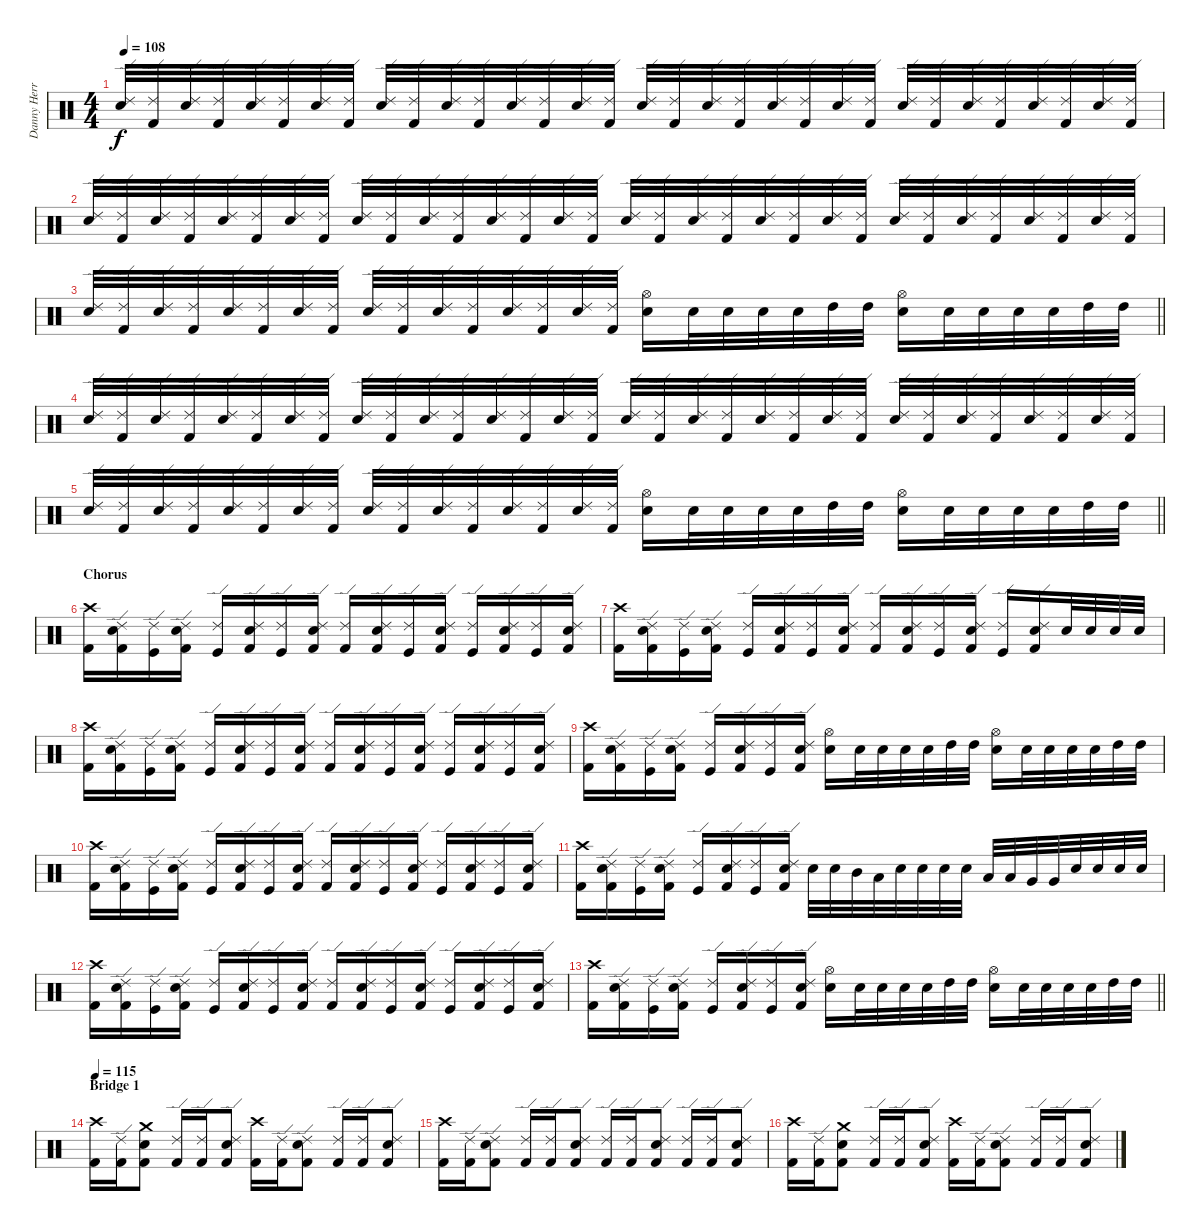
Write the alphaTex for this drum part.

\track ("Danny Herrera " "Danny Herr") {instrument percussion}
\staff {score}
\articulation defaults
\ts (4 4)
\tempo 108
\clef neutral
\ks c
("Snare (hit) 2" "Ride (edge) 2").32{dy f} ("Kick (hit) 2" "Ride (edge) 2").32 ("Snare (hit) 2" "Ride (edge) 2").32 ("Kick (hit) 2" "Ride (edge) 2").32 ("Snare (hit) 2" "Ride (edge) 2").32 ("Kick (hit) 2" "Ride (edge) 2").32 ("Snare (hit) 2" "Ride (edge) 2").32 ("Kick (hit) 2" "Ride (edge) 2").32 ("Snare (hit) 2" "Ride (edge) 2").32 ("Kick (hit) 2" "Ride (edge) 2").32 ("Snare (hit) 2" "Ride (edge) 2").32 ("Kick (hit) 2" "Ride (edge) 2").32 ("Snare (hit) 2" "Ride (edge) 2").32 ("Kick (hit) 2" "Ride (edge) 2").32 ("Snare (hit) 2" "Ride (edge) 2").32 ("Kick (hit) 2" "Ride (edge) 2").32 ("Snare (hit) 2" "Ride (edge) 2").32 ("Kick (hit) 2" "Ride (edge) 2").32 ("Snare (hit) 2" "Ride (edge) 2").32 ("Kick (hit) 2" "Ride (edge) 2").32 ("Snare (hit) 2" "Ride (edge) 2").32 ("Kick (hit) 2" "Ride (edge) 2").32 ("Snare (hit) 2" "Ride (edge) 2").32 ("Kick (hit) 2" "Ride (edge) 2").32 ("Snare (hit) 2" "Ride (edge) 2").32 ("Kick (hit) 2" "Ride (edge) 2").32 ("Snare (hit) 2" "Ride (edge) 2").32 ("Kick (hit) 2" "Ride (edge) 2").32 ("Snare (hit) 2" "Ride (edge) 2").32 ("Kick (hit) 2" "Ride (edge) 2").32 ("Snare (hit) 2" "Ride (edge) 2").32 ("Kick (hit) 2" "Ride (edge) 2").32 |
("Snare (hit) 2" "Ride (edge) 2").32 ("Kick (hit) 2" "Ride (edge) 2").32 ("Snare (hit) 2" "Ride (edge) 2").32 ("Kick (hit) 2" "Ride (edge) 2").32 ("Snare (hit) 2" "Ride (edge) 2").32 ("Kick (hit) 2" "Ride (edge) 2").32 ("Snare (hit) 2" "Ride (edge) 2").32 ("Kick (hit) 2" "Ride (edge) 2").32 ("Snare (hit) 2" "Ride (edge) 2").32 ("Kick (hit) 2" "Ride (edge) 2").32 ("Snare (hit) 2" "Ride (edge) 2").32 ("Kick (hit) 2" "Ride (edge) 2").32 ("Snare (hit) 2" "Ride (edge) 2").32 ("Kick (hit) 2" "Ride (edge) 2").32 ("Snare (hit) 2" "Ride (edge) 2").32 ("Kick (hit) 2" "Ride (edge) 2").32 ("Snare (hit) 2" "Ride (edge) 2").32 ("Kick (hit) 2" "Ride (edge) 2").32 ("Snare (hit) 2" "Ride (edge) 2").32 ("Kick (hit) 2" "Ride (edge) 2").32 ("Snare (hit) 2" "Ride (edge) 2").32 ("Kick (hit) 2" "Ride (edge) 2").32 ("Snare (hit) 2" "Ride (edge) 2").32 ("Kick (hit) 2" "Ride (edge) 2").32 ("Snare (hit) 2" "Ride (edge) 2").32 ("Kick (hit) 2" "Ride (edge) 2").32 ("Snare (hit) 2" "Ride (edge) 2").32 ("Kick (hit) 2" "Ride (edge) 2").32 ("Snare (hit) 2" "Ride (edge) 2").32 ("Kick (hit) 2" "Ride (edge) 2").32 ("Snare (hit) 2" "Ride (edge) 2").32 ("Kick (hit) 2" "Ride (edge) 2").32 |
\barLineRight lightlight
("Snare (hit) 2" "Ride (edge) 2").32 ("Kick (hit) 2" "Ride (edge) 2").32 ("Snare (hit) 2" "Ride (edge) 2").32 ("Kick (hit) 2" "Ride (edge) 2").32 ("Snare (hit) 2" "Ride (edge) 2").32 ("Kick (hit) 2" "Ride (edge) 2").32 ("Snare (hit) 2" "Ride (edge) 2").32 ("Kick (hit) 2" "Ride (edge) 2").32 ("Snare (hit) 2" "Ride (edge) 2").32 ("Kick (hit) 2" "Ride (edge) 2").32 ("Snare (hit) 2" "Ride (edge) 2").32 ("Kick (hit) 2" "Ride (edge) 2").32 ("Snare (hit) 2" "Ride (edge) 2").32 ("Kick (hit) 2" "Ride (edge) 2").32 ("Snare (hit) 2" "Ride (edge) 2").32 ("Kick (hit) 2" "Ride (edge) 2").32 ("Snare (hit) 2" "Hi-Hat (open)").16 "Snare (hit) 2".32 "Snare (hit) 2".32 "Snare (hit) 2".32 "Snare (hit) 2".32 "High Tom (hit)".32 "High Tom (hit)".32 ("Snare (hit) 2" "Hi-Hat (open)").16 "Snare (hit) 2".32 "Snare (hit) 2".32 "Snare (hit) 2".32 "Snare (hit) 2".32 "High Tom (hit)".32 "High Tom (hit)".32 |
("Snare (hit) 2" "Ride (edge) 2").32 ("Kick (hit) 2" "Ride (edge) 2").32 ("Snare (hit) 2" "Ride (edge) 2").32 ("Kick (hit) 2" "Ride (edge) 2").32 ("Snare (hit) 2" "Ride (edge) 2").32 ("Kick (hit) 2" "Ride (edge) 2").32 ("Snare (hit) 2" "Ride (edge) 2").32 ("Kick (hit) 2" "Ride (edge) 2").32 ("Snare (hit) 2" "Ride (edge) 2").32 ("Kick (hit) 2" "Ride (edge) 2").32 ("Snare (hit) 2" "Ride (edge) 2").32 ("Kick (hit) 2" "Ride (edge) 2").32 ("Snare (hit) 2" "Ride (edge) 2").32 ("Kick (hit) 2" "Ride (edge) 2").32 ("Snare (hit) 2" "Ride (edge) 2").32 ("Kick (hit) 2" "Ride (edge) 2").32 ("Snare (hit) 2" "Ride (edge) 2").32 ("Kick (hit) 2" "Ride (edge) 2").32 ("Snare (hit) 2" "Ride (edge) 2").32 ("Kick (hit) 2" "Ride (edge) 2").32 ("Snare (hit) 2" "Ride (edge) 2").32 ("Kick (hit) 2" "Ride (edge) 2").32 ("Snare (hit) 2" "Ride (edge) 2").32 ("Kick (hit) 2" "Ride (edge) 2").32 ("Snare (hit) 2" "Ride (edge) 2").32 ("Kick (hit) 2" "Ride (edge) 2").32 ("Snare (hit) 2" "Ride (edge) 2").32 ("Kick (hit) 2" "Ride (edge) 2").32 ("Snare (hit) 2" "Ride (edge) 2").32 ("Kick (hit) 2" "Ride (edge) 2").32 ("Snare (hit) 2" "Ride (edge) 2").32 ("Kick (hit) 2" "Ride (edge) 2").32 |
\barLineRight lightlight
("Snare (hit) 2" "Ride (edge) 2").32 ("Kick (hit) 2" "Ride (edge) 2").32 ("Snare (hit) 2" "Ride (edge) 2").32 ("Kick (hit) 2" "Ride (edge) 2").32 ("Snare (hit) 2" "Ride (edge) 2").32 ("Kick (hit) 2" "Ride (edge) 2").32 ("Snare (hit) 2" "Ride (edge) 2").32 ("Kick (hit) 2" "Ride (edge) 2").32 ("Snare (hit) 2" "Ride (edge) 2").32 ("Kick (hit) 2" "Ride (edge) 2").32 ("Snare (hit) 2" "Ride (edge) 2").32 ("Kick (hit) 2" "Ride (edge) 2").32 ("Snare (hit) 2" "Ride (edge) 2").32 ("Kick (hit) 2" "Ride (edge) 2").32 ("Snare (hit) 2" "Ride (edge) 2").32 ("Kick (hit) 2" "Ride (edge) 2").32 ("Snare (hit) 2" "Hi-Hat (open)").16 "Snare (hit) 2".32 "Snare (hit) 2".32 "Snare (hit) 2".32 "Snare (hit) 2".32 "High Tom (hit)".32 "High Tom (hit)".32 ("Snare (hit) 2" "Hi-Hat (open)").16 "Snare (hit) 2".32 "Snare (hit) 2".32 "Snare (hit) 2".32 "Snare (hit) 2".32 "High Tom (hit)".32 "High Tom (hit)".32 |
\section ("" "Chorus")
("Kick (hit) 2" "Crash high (hit)").16 ("Kick (hit) 2" "Snare (hit) 2" "Ride (edge) 2").16 ("Kick (hit)" "Ride (edge) 2").16 ("Kick (hit) 2" "Snare (hit) 2" "Ride (edge) 2").16 ("Kick (hit)" "Ride (edge) 2").16 ("Kick (hit) 2" "Snare (hit) 2" "Ride (edge) 2").16 ("Kick (hit)" "Ride (edge) 2").16 ("Kick (hit) 2" "Snare (hit) 2" "Ride (edge) 2").16 ("Kick (hit) 2" "Ride (edge) 2").16 ("Kick (hit) 2" "Snare (hit) 2" "Ride (edge) 2").16 ("Kick (hit)" "Ride (edge) 2").16 ("Kick (hit) 2" "Snare (hit) 2" "Ride (edge) 2").16 ("Kick (hit)" "Ride (edge) 2").16 ("Kick (hit) 2" "Snare (hit) 2" "Ride (edge) 2").16 ("Kick (hit)" "Ride (edge) 2").16 ("Kick (hit) 2" "Snare (hit) 2" "Ride (edge) 2").16 |
("Kick (hit) 2" "Crash high (hit)").16 ("Kick (hit) 2" "Snare (hit) 2" "Ride (edge) 2").16 ("Kick (hit)" "Ride (edge) 2").16 ("Kick (hit) 2" "Snare (hit) 2" "Ride (edge) 2").16 ("Kick (hit)" "Ride (edge) 2").16 ("Kick (hit) 2" "Snare (hit) 2" "Ride (edge) 2").16 ("Kick (hit)" "Ride (edge) 2").16 ("Kick (hit) 2" "Snare (hit) 2" "Ride (edge) 2").16 ("Kick (hit) 2" "Ride (edge) 2").16 ("Kick (hit) 2" "Snare (hit) 2" "Ride (edge) 2").16 ("Kick (hit)" "Ride (edge) 2").16 ("Kick (hit) 2" "Snare (hit) 2" "Ride (edge) 2").16 ("Kick (hit)" "Ride (edge) 2").16 ("Kick (hit) 2" "Snare (hit) 2" "Ride (edge) 2").16 "Snare (hit) 2".32 "Snare (hit) 2".32 "Snare (hit) 2".32 "Snare (hit) 2".32 |
("Kick (hit) 2" "Crash high (hit)").16 ("Kick (hit) 2" "Snare (hit) 2" "Ride (edge) 2").16 ("Kick (hit)" "Ride (edge) 2").16 ("Kick (hit) 2" "Snare (hit) 2" "Ride (edge) 2").16 ("Kick (hit)" "Ride (edge) 2").16 ("Kick (hit) 2" "Snare (hit) 2" "Ride (edge) 2").16 ("Kick (hit)" "Ride (edge) 2").16 ("Kick (hit) 2" "Snare (hit) 2" "Ride (edge) 2").16 ("Kick (hit) 2" "Ride (edge) 2").16 ("Kick (hit) 2" "Snare (hit) 2" "Ride (edge) 2").16 ("Kick (hit)" "Ride (edge) 2").16 ("Kick (hit) 2" "Snare (hit) 2" "Ride (edge) 2").16 ("Kick (hit)" "Ride (edge) 2").16 ("Kick (hit) 2" "Snare (hit) 2" "Ride (edge) 2").16 ("Kick (hit)" "Ride (edge) 2").16 ("Kick (hit) 2" "Snare (hit) 2" "Ride (edge) 2").16 |
("Kick (hit) 2" "Crash high (hit)").16 ("Kick (hit) 2" "Snare (hit) 2" "Ride (edge) 2").16 ("Kick (hit)" "Ride (edge) 2").16 ("Kick (hit) 2" "Snare (hit) 2" "Ride (edge) 2").16 ("Kick (hit)" "Ride (edge) 2").16 ("Kick (hit) 2" "Snare (hit) 2" "Ride (edge) 2").16 ("Kick (hit)" "Ride (edge) 2").16 ("Kick (hit) 2" "Snare (hit) 2" "Ride (edge) 2").16 ("Snare (hit) 2" "Hi-Hat (open)").16 "Snare (hit) 2".32 "Snare (hit) 2".32 "Snare (hit) 2".32 "Snare (hit) 2".32 "High Tom (hit)".32 "High Tom (hit)".32 ("Snare (hit) 2" "Hi-Hat (open)").16 "Snare (hit) 2".32 "Snare (hit) 2".32 "Snare (hit) 2".32 "Snare (hit) 2".32 "High Tom (hit)".32 "High Tom (hit)".32 |
("Kick (hit) 2" "Crash high (hit)").16 ("Kick (hit) 2" "Snare (hit) 2" "Ride (edge) 2").16 ("Kick (hit)" "Ride (edge) 2").16 ("Kick (hit) 2" "Snare (hit) 2" "Ride (edge) 2").16 ("Kick (hit)" "Ride (edge) 2").16 ("Kick (hit) 2" "Snare (hit) 2" "Ride (edge) 2").16 ("Kick (hit)" "Ride (edge) 2").16 ("Kick (hit) 2" "Snare (hit) 2" "Ride (edge) 2").16 ("Kick (hit) 2" "Ride (edge) 2").16 ("Kick (hit) 2" "Snare (hit) 2" "Ride (edge) 2").16 ("Kick (hit)" "Ride (edge) 2").16 ("Kick (hit) 2" "Snare (hit) 2" "Ride (edge) 2").16 ("Kick (hit)" "Ride (edge) 2").16 ("Kick (hit) 2" "Snare (hit) 2" "Ride (edge) 2").16 ("Kick (hit)" "Ride (edge) 2").16 ("Kick (hit) 2" "Snare (hit) 2" "Ride (edge) 2").16 |
("Kick (hit) 2" "Crash high (hit)").16 ("Kick (hit) 2" "Snare (hit) 2" "Ride (edge) 2").16 ("Kick (hit)" "Ride (edge) 2").16 ("Kick (hit) 2" "Snare (hit) 2" "Ride (edge) 2").16 ("Kick (hit)" "Ride (edge) 2").16 ("Kick (hit) 2" "Snare (hit) 2" "Ride (edge) 2").16 ("Kick (hit)" "Ride (edge) 2").16 ("Kick (hit) 2" "Snare (hit) 2" "Ride (edge) 2").16 "Snare (hit) 2".32 "Snare (hit) 2".32 "Mid Tom (hit)".32 "Low Tom (hit)".32 "Snare (hit) 2".32 "Snare (hit) 2".32 "Snare (hit) 2".32 "Snare (hit) 2".32 "Low Tom (hit)".32 "Low Tom (hit)".32 "Very Low Tom (hit)".32 "Very Low Tom (hit)".32 "Snare (hit) 2".32 "Snare (hit) 2".32 "Snare (hit) 2".32 "Snare (hit) 2".32 |
("Kick (hit) 2" "Crash high (hit)").16 ("Kick (hit) 2" "Snare (hit) 2" "Ride (edge) 2").16 ("Kick (hit)" "Ride (edge) 2").16 ("Kick (hit) 2" "Snare (hit) 2" "Ride (edge) 2").16 ("Kick (hit)" "Ride (edge) 2").16 ("Kick (hit) 2" "Snare (hit) 2" "Ride (edge) 2").16 ("Kick (hit)" "Ride (edge) 2").16 ("Kick (hit) 2" "Snare (hit) 2" "Ride (edge) 2").16 ("Kick (hit) 2" "Ride (edge) 2").16 ("Kick (hit) 2" "Snare (hit) 2" "Ride (edge) 2").16 ("Kick (hit)" "Ride (edge) 2").16 ("Kick (hit) 2" "Snare (hit) 2" "Ride (edge) 2").16 ("Kick (hit)" "Ride (edge) 2").16 ("Kick (hit) 2" "Snare (hit) 2" "Ride (edge) 2").16 ("Kick (hit)" "Ride (edge) 2").16 ("Kick (hit) 2" "Snare (hit) 2" "Ride (edge) 2").16 |
\barLineRight lightlight
("Kick (hit) 2" "Crash high (hit)").16 ("Kick (hit) 2" "Snare (hit) 2" "Ride (edge) 2").16 ("Kick (hit)" "Ride (edge) 2").16 ("Kick (hit) 2" "Snare (hit) 2" "Ride (edge) 2").16 ("Kick (hit)" "Ride (edge) 2").16 ("Kick (hit) 2" "Snare (hit) 2" "Ride (edge) 2").16 ("Kick (hit)" "Ride (edge) 2").16 ("Kick (hit) 2" "Snare (hit) 2" "Ride (edge) 2").16 ("Snare (hit) 2" "Hi-Hat (open)").16 "Snare (hit) 2".32 "Snare (hit) 2".32 "Snare (hit) 2".32 "Snare (hit) 2".32 "High Tom (hit)".32 "High Tom (hit)".32 ("Snare (hit) 2" "Hi-Hat (open)").16 "Snare (hit) 2".32 "Snare (hit) 2".32 "Snare (hit) 2".32 "Snare (hit) 2".32 "High Tom (hit)".32 "High Tom (hit)".32 |
\section ("" "Bridge 1")
\tempo 115
("Kick (hit) 2" "Crash high (hit)").16 ("Kick (hit) 2" "Ride (edge) 2").16 ("Kick (hit) 2" "Snare (hit) 2" "Crash medium (hit)").8 ("Kick (hit) 2" "Ride (edge) 2").16 ("Kick (hit) 2" "Ride (edge) 2").16 ("Kick (hit) 2" "Snare (hit) 2" "Ride (edge) 2").8 ("Kick (hit) 2" "Crash high (hit)").16 ("Kick (hit) 2" "Ride (edge) 2").16 ("Kick (hit) 2" "Snare (hit) 2" "Ride (edge) 2").8 ("Kick (hit) 2" "Ride (edge) 2").16 ("Kick (hit) 2" "Ride (edge) 2").16 ("Kick (hit) 2" "Snare (hit) 2" "Ride (edge) 2").8 |
("Kick (hit) 2" "Crash high (hit)").16 ("Kick (hit) 2" "Ride (edge) 2").16 ("Kick (hit) 2" "Snare (hit) 2" "Ride (edge) 2").8 ("Kick (hit) 2" "Ride (edge) 2").16 ("Kick (hit) 2" "Ride (edge) 2").16 ("Kick (hit) 2" "Snare (hit) 2" "Ride (edge) 2").8 ("Kick (hit) 2" "Ride (edge) 2").16 ("Kick (hit) 2" "Ride (edge) 2").16 ("Kick (hit) 2" "Snare (hit) 2" "Ride (edge) 2").8 ("Kick (hit) 2" "Ride (edge) 2").16 ("Kick (hit) 2" "Ride (edge) 2").16 ("Kick (hit) 2" "Snare (hit) 2" "Ride (edge) 2").8 |
("Kick (hit) 2" "Crash high (hit)").16 ("Kick (hit) 2" "Ride (edge) 2").16 ("Kick (hit) 2" "Snare (hit) 2" "Crash medium (hit)").8 ("Kick (hit) 2" "Ride (edge) 2").16 ("Kick (hit) 2" "Ride (edge) 2").16 ("Kick (hit) 2" "Snare (hit) 2" "Ride (edge) 2").8 ("Kick (hit) 2" "Crash high (hit)").16 ("Kick (hit) 2" "Ride (edge) 2").16 ("Kick (hit) 2" "Snare (hit) 2" "Ride (edge) 2").8 ("Kick (hit) 2" "Ride (edge) 2").16 ("Kick (hit) 2" "Ride (edge) 2").16 ("Kick (hit) 2" "Snare (hit) 2" "Ride (edge) 2").8
